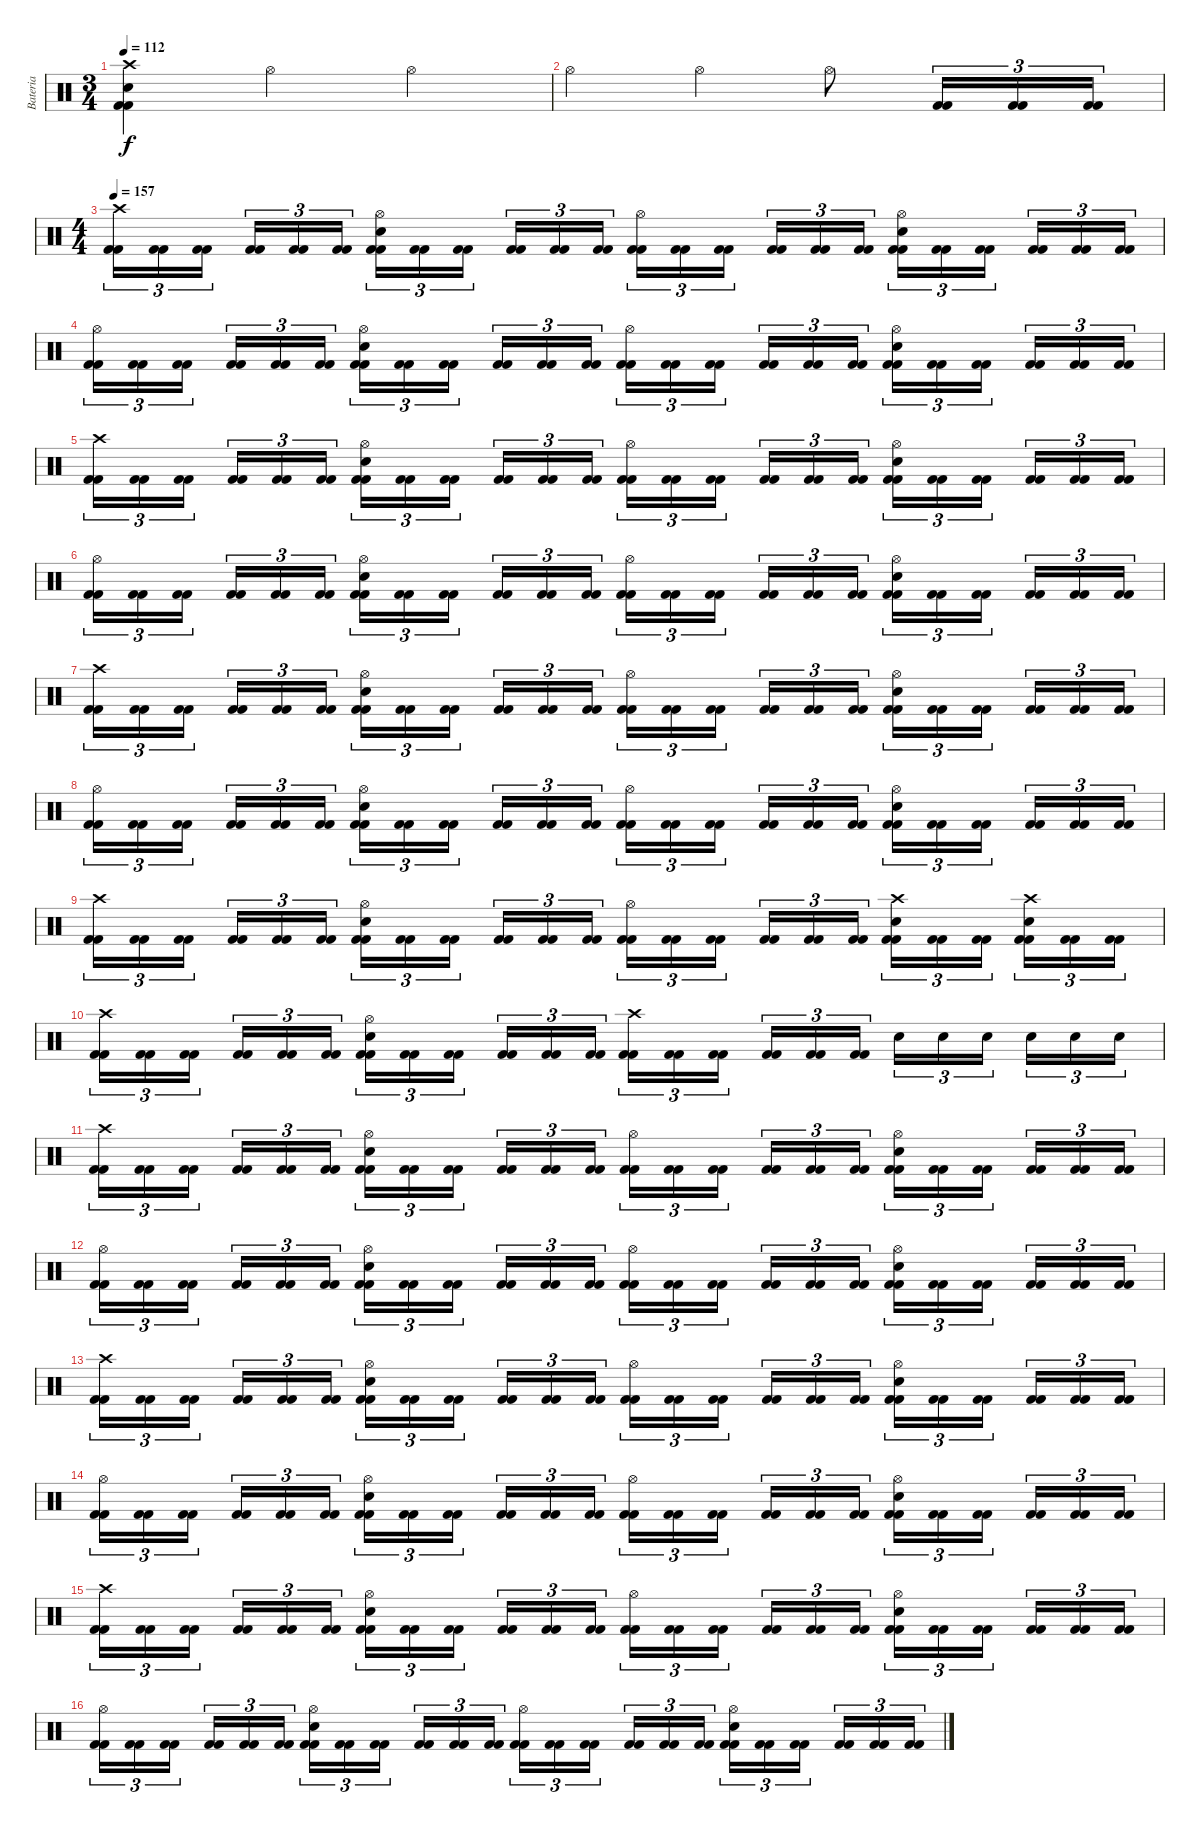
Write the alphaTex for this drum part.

\track ("Bateria" "Bateria") {instrument percussion}
\staff {score}
\articulation defaults
\ts (3 4)
\tempo 112
\clef neutral
\ks c
("Kick (hit) 2" "Kick (hit) 2" "Snare (hit) 2" "Crash high (hit)").4{dy f} "Hi-Hat (open)".4 "Hi-Hat (open)".4 |
"Hi-Hat (open)".4 "Hi-Hat (open)".4 "Hi-Hat (open)".8 ("Kick (hit) 2" "Kick (hit) 2").16{tu (3 2)} ("Kick (hit) 2" "Kick (hit) 2").16{tu (3 2)} ("Kick (hit) 2" "Kick (hit) 2").16{tu (3 2)} |
\ts (4 4)
\tempo 157
("Kick (hit) 2" "Kick (hit) 2" "Crash high (hit)").16{tu (3 2)} ("Kick (hit) 2" "Kick (hit) 2").16{tu (3 2)} ("Kick (hit) 2" "Kick (hit) 2").16{tu (3 2)} ("Kick (hit) 2" "Kick (hit) 2").16{tu (3 2)} ("Kick (hit) 2" "Kick (hit) 2").16{tu (3 2)} ("Kick (hit) 2" "Kick (hit) 2").16{tu (3 2)} ("Kick (hit) 2" "Kick (hit) 2" "Snare (hit) 2" "Hi-Hat (open)").16{tu (3 2)} ("Kick (hit) 2" "Kick (hit) 2").16{tu (3 2)} ("Kick (hit) 2" "Kick (hit) 2").16{tu (3 2)} ("Kick (hit) 2" "Kick (hit) 2").16{tu (3 2)} ("Kick (hit) 2" "Kick (hit) 2").16{tu (3 2)} ("Kick (hit) 2" "Kick (hit) 2").16{tu (3 2)} ("Kick (hit) 2" "Kick (hit) 2" "Hi-Hat (open)").16{tu (3 2)} ("Kick (hit) 2" "Kick (hit) 2").16{tu (3 2)} ("Kick (hit) 2" "Kick (hit) 2").16{tu (3 2)} ("Kick (hit) 2" "Kick (hit) 2").16{tu (3 2)} ("Kick (hit) 2" "Kick (hit) 2").16{tu (3 2)} ("Kick (hit) 2" "Kick (hit) 2").16{tu (3 2)} ("Kick (hit) 2" "Kick (hit) 2" "Snare (hit) 2" "Hi-Hat (open)").16{tu (3 2)} ("Kick (hit) 2" "Kick (hit) 2").16{tu (3 2)} ("Kick (hit) 2" "Kick (hit) 2").16{tu (3 2)} ("Kick (hit) 2" "Kick (hit) 2").16{tu (3 2)} ("Kick (hit) 2" "Kick (hit) 2").16{tu (3 2)} ("Kick (hit) 2" "Kick (hit) 2").16{tu (3 2)} |
("Kick (hit) 2" "Kick (hit) 2" "Hi-Hat (open)").16{tu (3 2)} ("Kick (hit) 2" "Kick (hit) 2").16{tu (3 2)} ("Kick (hit) 2" "Kick (hit) 2").16{tu (3 2)} ("Kick (hit) 2" "Kick (hit) 2").16{tu (3 2)} ("Kick (hit) 2" "Kick (hit) 2").16{tu (3 2)} ("Kick (hit) 2" "Kick (hit) 2").16{tu (3 2)} ("Kick (hit) 2" "Kick (hit) 2" "Snare (hit) 2" "Hi-Hat (open)").16{tu (3 2)} ("Kick (hit) 2" "Kick (hit) 2").16{tu (3 2)} ("Kick (hit) 2" "Kick (hit) 2").16{tu (3 2)} ("Kick (hit) 2" "Kick (hit) 2").16{tu (3 2)} ("Kick (hit) 2" "Kick (hit) 2").16{tu (3 2)} ("Kick (hit) 2" "Kick (hit) 2").16{tu (3 2)} ("Kick (hit) 2" "Kick (hit) 2" "Hi-Hat (open)").16{tu (3 2)} ("Kick (hit) 2" "Kick (hit) 2").16{tu (3 2)} ("Kick (hit) 2" "Kick (hit) 2").16{tu (3 2)} ("Kick (hit) 2" "Kick (hit) 2").16{tu (3 2)} ("Kick (hit) 2" "Kick (hit) 2").16{tu (3 2)} ("Kick (hit) 2" "Kick (hit) 2").16{tu (3 2)} ("Kick (hit) 2" "Kick (hit) 2" "Snare (hit) 2" "Hi-Hat (open)").16{tu (3 2)} ("Kick (hit) 2" "Kick (hit) 2").16{tu (3 2)} ("Kick (hit) 2" "Kick (hit) 2").16{tu (3 2)} ("Kick (hit) 2" "Kick (hit) 2").16{tu (3 2)} ("Kick (hit) 2" "Kick (hit) 2").16{tu (3 2)} ("Kick (hit) 2" "Kick (hit) 2").16{tu (3 2)} |
("Kick (hit) 2" "Kick (hit) 2" "Crash high (hit)").16{tu (3 2)} ("Kick (hit) 2" "Kick (hit) 2").16{tu (3 2)} ("Kick (hit) 2" "Kick (hit) 2").16{tu (3 2)} ("Kick (hit) 2" "Kick (hit) 2").16{tu (3 2)} ("Kick (hit) 2" "Kick (hit) 2").16{tu (3 2)} ("Kick (hit) 2" "Kick (hit) 2").16{tu (3 2)} ("Kick (hit) 2" "Kick (hit) 2" "Snare (hit) 2" "Hi-Hat (open)").16{tu (3 2)} ("Kick (hit) 2" "Kick (hit) 2").16{tu (3 2)} ("Kick (hit) 2" "Kick (hit) 2").16{tu (3 2)} ("Kick (hit) 2" "Kick (hit) 2").16{tu (3 2)} ("Kick (hit) 2" "Kick (hit) 2").16{tu (3 2)} ("Kick (hit) 2" "Kick (hit) 2").16{tu (3 2)} ("Kick (hit) 2" "Kick (hit) 2" "Hi-Hat (open)").16{tu (3 2)} ("Kick (hit) 2" "Kick (hit) 2").16{tu (3 2)} ("Kick (hit) 2" "Kick (hit) 2").16{tu (3 2)} ("Kick (hit) 2" "Kick (hit) 2").16{tu (3 2)} ("Kick (hit) 2" "Kick (hit) 2").16{tu (3 2)} ("Kick (hit) 2" "Kick (hit) 2").16{tu (3 2)} ("Kick (hit) 2" "Kick (hit) 2" "Snare (hit) 2" "Hi-Hat (open)").16{tu (3 2)} ("Kick (hit) 2" "Kick (hit) 2").16{tu (3 2)} ("Kick (hit) 2" "Kick (hit) 2").16{tu (3 2)} ("Kick (hit) 2" "Kick (hit) 2").16{tu (3 2)} ("Kick (hit) 2" "Kick (hit) 2").16{tu (3 2)} ("Kick (hit) 2" "Kick (hit) 2").16{tu (3 2)} |
("Kick (hit) 2" "Kick (hit) 2" "Hi-Hat (open)").16{tu (3 2)} ("Kick (hit) 2" "Kick (hit) 2").16{tu (3 2)} ("Kick (hit) 2" "Kick (hit) 2").16{tu (3 2)} ("Kick (hit) 2" "Kick (hit) 2").16{tu (3 2)} ("Kick (hit) 2" "Kick (hit) 2").16{tu (3 2)} ("Kick (hit) 2" "Kick (hit) 2").16{tu (3 2)} ("Kick (hit) 2" "Kick (hit) 2" "Snare (hit) 2" "Hi-Hat (open)").16{tu (3 2)} ("Kick (hit) 2" "Kick (hit) 2").16{tu (3 2)} ("Kick (hit) 2" "Kick (hit) 2").16{tu (3 2)} ("Kick (hit) 2" "Kick (hit) 2").16{tu (3 2)} ("Kick (hit) 2" "Kick (hit) 2").16{tu (3 2)} ("Kick (hit) 2" "Kick (hit) 2").16{tu (3 2)} ("Kick (hit) 2" "Kick (hit) 2" "Hi-Hat (open)").16{tu (3 2)} ("Kick (hit) 2" "Kick (hit) 2").16{tu (3 2)} ("Kick (hit) 2" "Kick (hit) 2").16{tu (3 2)} ("Kick (hit) 2" "Kick (hit) 2").16{tu (3 2)} ("Kick (hit) 2" "Kick (hit) 2").16{tu (3 2)} ("Kick (hit) 2" "Kick (hit) 2").16{tu (3 2)} ("Kick (hit) 2" "Kick (hit) 2" "Snare (hit) 2" "Hi-Hat (open)").16{tu (3 2)} ("Kick (hit) 2" "Kick (hit) 2").16{tu (3 2)} ("Kick (hit) 2" "Kick (hit) 2").16{tu (3 2)} ("Kick (hit) 2" "Kick (hit) 2").16{tu (3 2)} ("Kick (hit) 2" "Kick (hit) 2").16{tu (3 2)} ("Kick (hit) 2" "Kick (hit) 2").16{tu (3 2)} |
("Kick (hit) 2" "Kick (hit) 2" "Crash high (hit)").16{tu (3 2)} ("Kick (hit) 2" "Kick (hit) 2").16{tu (3 2)} ("Kick (hit) 2" "Kick (hit) 2").16{tu (3 2)} ("Kick (hit) 2" "Kick (hit) 2").16{tu (3 2)} ("Kick (hit) 2" "Kick (hit) 2").16{tu (3 2)} ("Kick (hit) 2" "Kick (hit) 2").16{tu (3 2)} ("Kick (hit) 2" "Kick (hit) 2" "Snare (hit) 2" "Hi-Hat (open)").16{tu (3 2)} ("Kick (hit) 2" "Kick (hit) 2").16{tu (3 2)} ("Kick (hit) 2" "Kick (hit) 2").16{tu (3 2)} ("Kick (hit) 2" "Kick (hit) 2").16{tu (3 2)} ("Kick (hit) 2" "Kick (hit) 2").16{tu (3 2)} ("Kick (hit) 2" "Kick (hit) 2").16{tu (3 2)} ("Kick (hit) 2" "Kick (hit) 2" "Hi-Hat (open)").16{tu (3 2)} ("Kick (hit) 2" "Kick (hit) 2").16{tu (3 2)} ("Kick (hit) 2" "Kick (hit) 2").16{tu (3 2)} ("Kick (hit) 2" "Kick (hit) 2").16{tu (3 2)} ("Kick (hit) 2" "Kick (hit) 2").16{tu (3 2)} ("Kick (hit) 2" "Kick (hit) 2").16{tu (3 2)} ("Kick (hit) 2" "Kick (hit) 2" "Snare (hit) 2" "Hi-Hat (open)").16{tu (3 2)} ("Kick (hit) 2" "Kick (hit) 2").16{tu (3 2)} ("Kick (hit) 2" "Kick (hit) 2").16{tu (3 2)} ("Kick (hit) 2" "Kick (hit) 2").16{tu (3 2)} ("Kick (hit) 2" "Kick (hit) 2").16{tu (3 2)} ("Kick (hit) 2" "Kick (hit) 2").16{tu (3 2)} |
("Kick (hit) 2" "Kick (hit) 2" "Hi-Hat (open)").16{tu (3 2)} ("Kick (hit) 2" "Kick (hit) 2").16{tu (3 2)} ("Kick (hit) 2" "Kick (hit) 2").16{tu (3 2)} ("Kick (hit) 2" "Kick (hit) 2").16{tu (3 2)} ("Kick (hit) 2" "Kick (hit) 2").16{tu (3 2)} ("Kick (hit) 2" "Kick (hit) 2").16{tu (3 2)} ("Kick (hit) 2" "Kick (hit) 2" "Snare (hit) 2" "Hi-Hat (open)").16{tu (3 2)} ("Kick (hit) 2" "Kick (hit) 2").16{tu (3 2)} ("Kick (hit) 2" "Kick (hit) 2").16{tu (3 2)} ("Kick (hit) 2" "Kick (hit) 2").16{tu (3 2)} ("Kick (hit) 2" "Kick (hit) 2").16{tu (3 2)} ("Kick (hit) 2" "Kick (hit) 2").16{tu (3 2)} ("Kick (hit) 2" "Kick (hit) 2" "Hi-Hat (open)").16{tu (3 2)} ("Kick (hit) 2" "Kick (hit) 2").16{tu (3 2)} ("Kick (hit) 2" "Kick (hit) 2").16{tu (3 2)} ("Kick (hit) 2" "Kick (hit) 2").16{tu (3 2)} ("Kick (hit) 2" "Kick (hit) 2").16{tu (3 2)} ("Kick (hit) 2" "Kick (hit) 2").16{tu (3 2)} ("Kick (hit) 2" "Kick (hit) 2" "Snare (hit) 2" "Hi-Hat (open)").16{tu (3 2)} ("Kick (hit) 2" "Kick (hit) 2").16{tu (3 2)} ("Kick (hit) 2" "Kick (hit) 2").16{tu (3 2)} ("Kick (hit) 2" "Kick (hit) 2").16{tu (3 2)} ("Kick (hit) 2" "Kick (hit) 2").16{tu (3 2)} ("Kick (hit) 2" "Kick (hit) 2").16{tu (3 2)} |
("Kick (hit) 2" "Kick (hit) 2" "Crash high (hit)").16{tu (3 2)} ("Kick (hit) 2" "Kick (hit) 2").16{tu (3 2)} ("Kick (hit) 2" "Kick (hit) 2").16{tu (3 2)} ("Kick (hit) 2" "Kick (hit) 2").16{tu (3 2)} ("Kick (hit) 2" "Kick (hit) 2").16{tu (3 2)} ("Kick (hit) 2" "Kick (hit) 2").16{tu (3 2)} ("Kick (hit) 2" "Kick (hit) 2" "Snare (hit) 2" "Hi-Hat (open)").16{tu (3 2)} ("Kick (hit) 2" "Kick (hit) 2").16{tu (3 2)} ("Kick (hit) 2" "Kick (hit) 2").16{tu (3 2)} ("Kick (hit) 2" "Kick (hit) 2").16{tu (3 2)} ("Kick (hit) 2" "Kick (hit) 2").16{tu (3 2)} ("Kick (hit) 2" "Kick (hit) 2").16{tu (3 2)} ("Kick (hit) 2" "Kick (hit) 2" "Hi-Hat (open)").16{tu (3 2)} ("Kick (hit) 2" "Kick (hit) 2").16{tu (3 2)} ("Kick (hit) 2" "Kick (hit) 2").16{tu (3 2)} ("Kick (hit) 2" "Kick (hit) 2").16{tu (3 2)} ("Kick (hit) 2" "Kick (hit) 2").16{tu (3 2)} ("Kick (hit) 2" "Kick (hit) 2").16{tu (3 2)} ("Kick (hit) 2" "Kick (hit) 2" "Snare (hit) 2" "Crash high (hit)").16{tu (3 2)} ("Kick (hit) 2" "Kick (hit) 2").16{tu (3 2)} ("Kick (hit) 2" "Kick (hit) 2").16{tu (3 2)} ("Kick (hit) 2" "Kick (hit) 2" "Snare (hit) 2" "Crash high (hit)").16{tu (3 2)} ("Kick (hit) 2" "Kick (hit) 2").16{tu (3 2)} ("Kick (hit) 2" "Kick (hit) 2").16{tu (3 2)} |
("Kick (hit) 2" "Kick (hit) 2" "Crash high (hit)").16{tu (3 2)} ("Kick (hit) 2" "Kick (hit) 2").16{tu (3 2)} ("Kick (hit) 2" "Kick (hit) 2").16{tu (3 2)} ("Kick (hit) 2" "Kick (hit) 2").16{tu (3 2)} ("Kick (hit) 2" "Kick (hit) 2").16{tu (3 2)} ("Kick (hit) 2" "Kick (hit) 2").16{tu (3 2)} ("Kick (hit) 2" "Kick (hit) 2" "Snare (hit) 2" "Hi-Hat (open)").16{tu (3 2)} ("Kick (hit) 2" "Kick (hit) 2").16{tu (3 2)} ("Kick (hit) 2" "Kick (hit) 2").16{tu (3 2)} ("Kick (hit) 2" "Kick (hit) 2").16{tu (3 2)} ("Kick (hit) 2" "Kick (hit) 2").16{tu (3 2)} ("Kick (hit) 2" "Kick (hit) 2").16{tu (3 2)} ("Kick (hit) 2" "Kick (hit) 2" "Crash high (hit)").16{tu (3 2)} ("Kick (hit) 2" "Kick (hit) 2").16{tu (3 2)} ("Kick (hit) 2" "Kick (hit) 2").16{tu (3 2)} ("Kick (hit) 2" "Kick (hit) 2").16{tu (3 2)} ("Kick (hit) 2" "Kick (hit) 2").16{tu (3 2)} ("Kick (hit) 2" "Kick (hit) 2").16{tu (3 2)} "Snare (hit) 2".16{tu (3 2)} "Snare (hit) 2".16{tu (3 2)} "Snare (hit) 2".16{tu (3 2)} "Snare (hit) 2".16{tu (3 2)} "Snare (hit) 2".16{tu (3 2)} "Snare (hit) 2".16{tu (3 2)} |
("Kick (hit) 2" "Kick (hit) 2" "Crash high (hit)").16{tu (3 2)} ("Kick (hit) 2" "Kick (hit) 2").16{tu (3 2)} ("Kick (hit) 2" "Kick (hit) 2").16{tu (3 2)} ("Kick (hit) 2" "Kick (hit) 2").16{tu (3 2)} ("Kick (hit) 2" "Kick (hit) 2").16{tu (3 2)} ("Kick (hit) 2" "Kick (hit) 2").16{tu (3 2)} ("Kick (hit) 2" "Kick (hit) 2" "Snare (hit) 2" "Hi-Hat (open)").16{tu (3 2)} ("Kick (hit) 2" "Kick (hit) 2").16{tu (3 2)} ("Kick (hit) 2" "Kick (hit) 2").16{tu (3 2)} ("Kick (hit) 2" "Kick (hit) 2").16{tu (3 2)} ("Kick (hit) 2" "Kick (hit) 2").16{tu (3 2)} ("Kick (hit) 2" "Kick (hit) 2").16{tu (3 2)} ("Kick (hit) 2" "Kick (hit) 2" "Hi-Hat (open)").16{tu (3 2)} ("Kick (hit) 2" "Kick (hit) 2").16{tu (3 2)} ("Kick (hit) 2" "Kick (hit) 2").16{tu (3 2)} ("Kick (hit) 2" "Kick (hit) 2").16{tu (3 2)} ("Kick (hit) 2" "Kick (hit) 2").16{tu (3 2)} ("Kick (hit) 2" "Kick (hit) 2").16{tu (3 2)} ("Kick (hit) 2" "Kick (hit) 2" "Snare (hit) 2" "Hi-Hat (open)").16{tu (3 2)} ("Kick (hit) 2" "Kick (hit) 2").16{tu (3 2)} ("Kick (hit) 2" "Kick (hit) 2").16{tu (3 2)} ("Kick (hit) 2" "Kick (hit) 2").16{tu (3 2)} ("Kick (hit) 2" "Kick (hit) 2").16{tu (3 2)} ("Kick (hit) 2" "Kick (hit) 2").16{tu (3 2)} |
("Kick (hit) 2" "Kick (hit) 2" "Hi-Hat (open)").16{tu (3 2)} ("Kick (hit) 2" "Kick (hit) 2").16{tu (3 2)} ("Kick (hit) 2" "Kick (hit) 2").16{tu (3 2)} ("Kick (hit) 2" "Kick (hit) 2").16{tu (3 2)} ("Kick (hit) 2" "Kick (hit) 2").16{tu (3 2)} ("Kick (hit) 2" "Kick (hit) 2").16{tu (3 2)} ("Kick (hit) 2" "Kick (hit) 2" "Snare (hit) 2" "Hi-Hat (open)").16{tu (3 2)} ("Kick (hit) 2" "Kick (hit) 2").16{tu (3 2)} ("Kick (hit) 2" "Kick (hit) 2").16{tu (3 2)} ("Kick (hit) 2" "Kick (hit) 2").16{tu (3 2)} ("Kick (hit) 2" "Kick (hit) 2").16{tu (3 2)} ("Kick (hit) 2" "Kick (hit) 2").16{tu (3 2)} ("Kick (hit) 2" "Kick (hit) 2" "Hi-Hat (open)").16{tu (3 2)} ("Kick (hit) 2" "Kick (hit) 2").16{tu (3 2)} ("Kick (hit) 2" "Kick (hit) 2").16{tu (3 2)} ("Kick (hit) 2" "Kick (hit) 2").16{tu (3 2)} ("Kick (hit) 2" "Kick (hit) 2").16{tu (3 2)} ("Kick (hit) 2" "Kick (hit) 2").16{tu (3 2)} ("Kick (hit) 2" "Kick (hit) 2" "Snare (hit) 2" "Hi-Hat (open)").16{tu (3 2)} ("Kick (hit) 2" "Kick (hit) 2").16{tu (3 2)} ("Kick (hit) 2" "Kick (hit) 2").16{tu (3 2)} ("Kick (hit) 2" "Kick (hit) 2").16{tu (3 2)} ("Kick (hit) 2" "Kick (hit) 2").16{tu (3 2)} ("Kick (hit) 2" "Kick (hit) 2").16{tu (3 2)} |
("Kick (hit) 2" "Kick (hit) 2" "Crash high (hit)").16{tu (3 2)} ("Kick (hit) 2" "Kick (hit) 2").16{tu (3 2)} ("Kick (hit) 2" "Kick (hit) 2").16{tu (3 2)} ("Kick (hit) 2" "Kick (hit) 2").16{tu (3 2)} ("Kick (hit) 2" "Kick (hit) 2").16{tu (3 2)} ("Kick (hit) 2" "Kick (hit) 2").16{tu (3 2)} ("Kick (hit) 2" "Kick (hit) 2" "Snare (hit) 2" "Hi-Hat (open)").16{tu (3 2)} ("Kick (hit) 2" "Kick (hit) 2").16{tu (3 2)} ("Kick (hit) 2" "Kick (hit) 2").16{tu (3 2)} ("Kick (hit) 2" "Kick (hit) 2").16{tu (3 2)} ("Kick (hit) 2" "Kick (hit) 2").16{tu (3 2)} ("Kick (hit) 2" "Kick (hit) 2").16{tu (3 2)} ("Kick (hit) 2" "Kick (hit) 2" "Hi-Hat (open)").16{tu (3 2)} ("Kick (hit) 2" "Kick (hit) 2").16{tu (3 2)} ("Kick (hit) 2" "Kick (hit) 2").16{tu (3 2)} ("Kick (hit) 2" "Kick (hit) 2").16{tu (3 2)} ("Kick (hit) 2" "Kick (hit) 2").16{tu (3 2)} ("Kick (hit) 2" "Kick (hit) 2").16{tu (3 2)} ("Kick (hit) 2" "Kick (hit) 2" "Snare (hit) 2" "Hi-Hat (open)").16{tu (3 2)} ("Kick (hit) 2" "Kick (hit) 2").16{tu (3 2)} ("Kick (hit) 2" "Kick (hit) 2").16{tu (3 2)} ("Kick (hit) 2" "Kick (hit) 2").16{tu (3 2)} ("Kick (hit) 2" "Kick (hit) 2").16{tu (3 2)} ("Kick (hit) 2" "Kick (hit) 2").16{tu (3 2)} |
("Kick (hit) 2" "Kick (hit) 2" "Hi-Hat (open)").16{tu (3 2)} ("Kick (hit) 2" "Kick (hit) 2").16{tu (3 2)} ("Kick (hit) 2" "Kick (hit) 2").16{tu (3 2)} ("Kick (hit) 2" "Kick (hit) 2").16{tu (3 2)} ("Kick (hit) 2" "Kick (hit) 2").16{tu (3 2)} ("Kick (hit) 2" "Kick (hit) 2").16{tu (3 2)} ("Kick (hit) 2" "Kick (hit) 2" "Snare (hit) 2" "Hi-Hat (open)").16{tu (3 2)} ("Kick (hit) 2" "Kick (hit) 2").16{tu (3 2)} ("Kick (hit) 2" "Kick (hit) 2").16{tu (3 2)} ("Kick (hit) 2" "Kick (hit) 2").16{tu (3 2)} ("Kick (hit) 2" "Kick (hit) 2").16{tu (3 2)} ("Kick (hit) 2" "Kick (hit) 2").16{tu (3 2)} ("Kick (hit) 2" "Kick (hit) 2" "Hi-Hat (open)").16{tu (3 2)} ("Kick (hit) 2" "Kick (hit) 2").16{tu (3 2)} ("Kick (hit) 2" "Kick (hit) 2").16{tu (3 2)} ("Kick (hit) 2" "Kick (hit) 2").16{tu (3 2)} ("Kick (hit) 2" "Kick (hit) 2").16{tu (3 2)} ("Kick (hit) 2" "Kick (hit) 2").16{tu (3 2)} ("Kick (hit) 2" "Kick (hit) 2" "Snare (hit) 2" "Hi-Hat (open)").16{tu (3 2)} ("Kick (hit) 2" "Kick (hit) 2").16{tu (3 2)} ("Kick (hit) 2" "Kick (hit) 2").16{tu (3 2)} ("Kick (hit) 2" "Kick (hit) 2").16{tu (3 2)} ("Kick (hit) 2" "Kick (hit) 2").16{tu (3 2)} ("Kick (hit) 2" "Kick (hit) 2").16{tu (3 2)} |
("Kick (hit) 2" "Kick (hit) 2" "Crash high (hit)").16{tu (3 2)} ("Kick (hit) 2" "Kick (hit) 2").16{tu (3 2)} ("Kick (hit) 2" "Kick (hit) 2").16{tu (3 2)} ("Kick (hit) 2" "Kick (hit) 2").16{tu (3 2)} ("Kick (hit) 2" "Kick (hit) 2").16{tu (3 2)} ("Kick (hit) 2" "Kick (hit) 2").16{tu (3 2)} ("Kick (hit) 2" "Kick (hit) 2" "Snare (hit) 2" "Hi-Hat (open)").16{tu (3 2)} ("Kick (hit) 2" "Kick (hit) 2").16{tu (3 2)} ("Kick (hit) 2" "Kick (hit) 2").16{tu (3 2)} ("Kick (hit) 2" "Kick (hit) 2").16{tu (3 2)} ("Kick (hit) 2" "Kick (hit) 2").16{tu (3 2)} ("Kick (hit) 2" "Kick (hit) 2").16{tu (3 2)} ("Kick (hit) 2" "Kick (hit) 2" "Hi-Hat (open)").16{tu (3 2)} ("Kick (hit) 2" "Kick (hit) 2").16{tu (3 2)} ("Kick (hit) 2" "Kick (hit) 2").16{tu (3 2)} ("Kick (hit) 2" "Kick (hit) 2").16{tu (3 2)} ("Kick (hit) 2" "Kick (hit) 2").16{tu (3 2)} ("Kick (hit) 2" "Kick (hit) 2").16{tu (3 2)} ("Kick (hit) 2" "Kick (hit) 2" "Snare (hit) 2" "Hi-Hat (open)").16{tu (3 2)} ("Kick (hit) 2" "Kick (hit) 2").16{tu (3 2)} ("Kick (hit) 2" "Kick (hit) 2").16{tu (3 2)} ("Kick (hit) 2" "Kick (hit) 2").16{tu (3 2)} ("Kick (hit) 2" "Kick (hit) 2").16{tu (3 2)} ("Kick (hit) 2" "Kick (hit) 2").16{tu (3 2)} |
("Kick (hit) 2" "Kick (hit) 2" "Hi-Hat (open)").16{tu (3 2)} ("Kick (hit) 2" "Kick (hit) 2").16{tu (3 2)} ("Kick (hit) 2" "Kick (hit) 2").16{tu (3 2)} ("Kick (hit) 2" "Kick (hit) 2").16{tu (3 2)} ("Kick (hit) 2" "Kick (hit) 2").16{tu (3 2)} ("Kick (hit) 2" "Kick (hit) 2").16{tu (3 2)} ("Kick (hit) 2" "Kick (hit) 2" "Snare (hit) 2" "Hi-Hat (open)").16{tu (3 2)} ("Kick (hit) 2" "Kick (hit) 2").16{tu (3 2)} ("Kick (hit) 2" "Kick (hit) 2").16{tu (3 2)} ("Kick (hit) 2" "Kick (hit) 2").16{tu (3 2)} ("Kick (hit) 2" "Kick (hit) 2").16{tu (3 2)} ("Kick (hit) 2" "Kick (hit) 2").16{tu (3 2)} ("Kick (hit) 2" "Kick (hit) 2" "Hi-Hat (open)").16{tu (3 2)} ("Kick (hit) 2" "Kick (hit) 2").16{tu (3 2)} ("Kick (hit) 2" "Kick (hit) 2").16{tu (3 2)} ("Kick (hit) 2" "Kick (hit) 2").16{tu (3 2)} ("Kick (hit) 2" "Kick (hit) 2").16{tu (3 2)} ("Kick (hit) 2" "Kick (hit) 2").16{tu (3 2)} ("Kick (hit) 2" "Kick (hit) 2" "Snare (hit) 2" "Hi-Hat (open)").16{tu (3 2)} ("Kick (hit) 2" "Kick (hit) 2").16{tu (3 2)} ("Kick (hit) 2" "Kick (hit) 2").16{tu (3 2)} ("Kick (hit) 2" "Kick (hit) 2").16{tu (3 2)} ("Kick (hit) 2" "Kick (hit) 2").16{tu (3 2)} ("Kick (hit) 2" "Kick (hit) 2").16{tu (3 2)}
